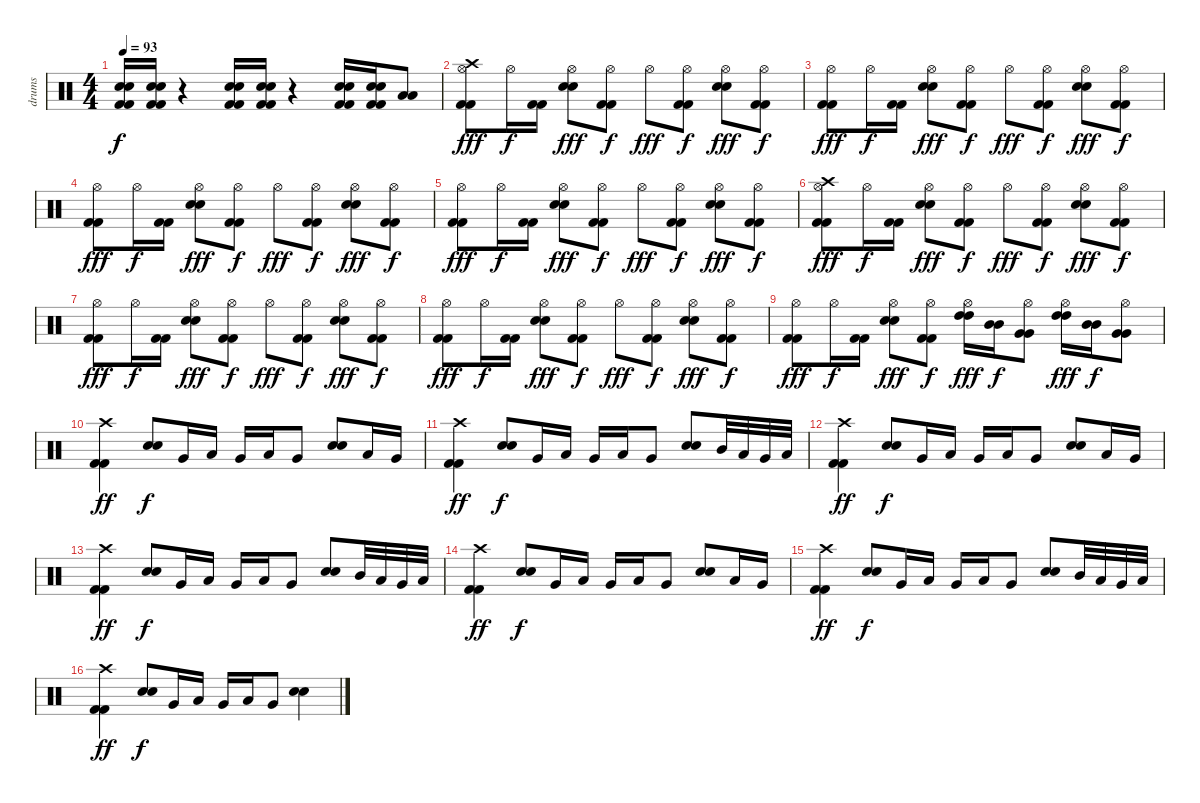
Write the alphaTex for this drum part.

\track ("drums" "drums") {instrument percussion}
\staff {score}
\articulation defaults
\ts (4 4)
\tempo 93
\clef neutral
\ks c
("Electric Snare (hit)" "Electric Snare (hit)" "Kick (hit) 2" "Kick (hit) 2").16{dy f} ("Electric Snare (hit)" "Electric Snare (hit)" "Kick (hit) 2" "Kick (hit) 2").16 r.4 ("Electric Snare (hit)" "Electric Snare (hit)" "Kick (hit) 2" "Kick (hit) 2").16 ("Electric Snare (hit)" "Electric Snare (hit)" "Kick (hit) 2" "Kick (hit) 2").16 r.4 ("Electric Snare (hit)" "Electric Snare (hit)" "Kick (hit) 2" "Kick (hit) 2").16 ("Electric Snare (hit)" "Electric Snare (hit)" "Kick (hit) 2" "Kick (hit) 2").16 ("Low Floor Tom (hit)" "Low Floor Tom (hit)").8 |
("Crash high (hit)" "Hi-Hat (open)" "Kick (hit) 2" "Kick (hit) 2").8{dy fff} "Hi-Hat (open)".16{dy f} ("Kick (hit) 2" "Kick (hit) 2").16 ("Electric Snare (hit)" "Electric Snare (hit)" "Hi-Hat (open)").8{dy fff} ("Hi-Hat (open)" "Kick (hit) 2" "Kick (hit) 2").8{dy f} "Hi-Hat (open)".8{dy fff} ("Hi-Hat (open)" "Kick (hit) 2" "Kick (hit) 2").8{dy f} ("Electric Snare (hit)" "Electric Snare (hit)" "Hi-Hat (open)").8{dy fff} ("Hi-Hat (open)" "Kick (hit) 2" "Kick (hit) 2").8{dy f} |
("Hi-Hat (open)" "Kick (hit) 2" "Kick (hit) 2").8{dy fff} "Hi-Hat (open)".16{dy f} ("Kick (hit) 2" "Kick (hit) 2").16 ("Electric Snare (hit)" "Electric Snare (hit)" "Hi-Hat (open)").8{dy fff} ("Hi-Hat (open)" "Kick (hit) 2" "Kick (hit) 2").8{dy f} "Hi-Hat (open)".8{dy fff} ("Hi-Hat (open)" "Kick (hit) 2" "Kick (hit) 2").8{dy f} ("Electric Snare (hit)" "Electric Snare (hit)" "Hi-Hat (open)").8{dy fff} ("Hi-Hat (open)" "Kick (hit) 2" "Kick (hit) 2").8{dy f} |
("Hi-Hat (open)" "Kick (hit) 2" "Kick (hit) 2").8{dy fff} "Hi-Hat (open)".16{dy f} ("Kick (hit) 2" "Kick (hit) 2").16 ("Electric Snare (hit)" "Electric Snare (hit)" "Hi-Hat (open)").8{dy fff} ("Hi-Hat (open)" "Kick (hit) 2" "Kick (hit) 2").8{dy f} "Hi-Hat (open)".8{dy fff} ("Hi-Hat (open)" "Kick (hit) 2" "Kick (hit) 2").8{dy f} ("Electric Snare (hit)" "Electric Snare (hit)" "Hi-Hat (open)").8{dy fff} ("Hi-Hat (open)" "Kick (hit) 2" "Kick (hit) 2").8{dy f} |
("Hi-Hat (open)" "Kick (hit) 2" "Kick (hit) 2").8{dy fff} "Hi-Hat (open)".16{dy f} ("Kick (hit) 2" "Kick (hit) 2").16 ("Electric Snare (hit)" "Electric Snare (hit)" "Hi-Hat (open)").8{dy fff} ("Hi-Hat (open)" "Kick (hit) 2" "Kick (hit) 2").8{dy f} "Hi-Hat (open)".8{dy fff} ("Hi-Hat (open)" "Kick (hit) 2" "Kick (hit) 2").8{dy f} ("Electric Snare (hit)" "Electric Snare (hit)" "Hi-Hat (open)").8{dy fff} ("Hi-Hat (open)" "Kick (hit) 2" "Kick (hit) 2").8{dy f} |
("Crash high (hit)" "Hi-Hat (open)" "Kick (hit) 2" "Kick (hit) 2").8{dy fff} "Hi-Hat (open)".16{dy f} ("Kick (hit) 2" "Kick (hit) 2").16 ("Electric Snare (hit)" "Electric Snare (hit)" "Hi-Hat (open)").8{dy fff} ("Hi-Hat (open)" "Kick (hit) 2" "Kick (hit) 2").8{dy f} "Hi-Hat (open)".8{dy fff} ("Hi-Hat (open)" "Kick (hit) 2" "Kick (hit) 2").8{dy f} ("Electric Snare (hit)" "Electric Snare (hit)" "Hi-Hat (open)").8{dy fff} ("Hi-Hat (open)" "Kick (hit) 2" "Kick (hit) 2").8{dy f} |
("Hi-Hat (open)" "Kick (hit) 2" "Kick (hit) 2").8{dy fff} "Hi-Hat (open)".16{dy f} ("Kick (hit) 2" "Kick (hit) 2").16 ("Electric Snare (hit)" "Electric Snare (hit)" "Hi-Hat (open)").8{dy fff} ("Hi-Hat (open)" "Kick (hit) 2" "Kick (hit) 2").8{dy f} "Hi-Hat (open)".8{dy fff} ("Hi-Hat (open)" "Kick (hit) 2" "Kick (hit) 2").8{dy f} ("Electric Snare (hit)" "Electric Snare (hit)" "Hi-Hat (open)").8{dy fff} ("Hi-Hat (open)" "Kick (hit) 2" "Kick (hit) 2").8{dy f} |
("Hi-Hat (open)" "Kick (hit) 2" "Kick (hit) 2").8{dy fff} "Hi-Hat (open)".16{dy f} ("Kick (hit) 2" "Kick (hit) 2").16 ("Electric Snare (hit)" "Electric Snare (hit)" "Hi-Hat (open)").8{dy fff} ("Hi-Hat (open)" "Kick (hit) 2" "Kick (hit) 2").8{dy f} "Hi-Hat (open)".8{dy fff} ("Hi-Hat (open)" "Kick (hit) 2" "Kick (hit) 2").8{dy f} ("Electric Snare (hit)" "Electric Snare (hit)" "Hi-Hat (open)").8{dy fff} ("Hi-Hat (open)" "Kick (hit) 2" "Kick (hit) 2").8{dy f} |
("Hi-Hat (open)" "Kick (hit) 2" "Kick (hit) 2").8{dy fff} "Hi-Hat (open)".16{dy f} ("Kick (hit) 2" "Kick (hit) 2").16 ("Electric Snare (hit)" "Electric Snare (hit)" "Hi-Hat (open)").8{dy fff} ("Hi-Hat (open)" "Kick (hit) 2" "Kick (hit) 2").8{dy f} ("Hi-Hat (open)" "High Tom (hit)" "High Tom (hit)").16{dy fff} ("Mid Tom (hit)" "Mid Tom (hit)").16{dy f} ("Hi-Hat (open)" "Very Low Tom (hit)" "Very Low Tom (hit)").8 ("Hi-Hat (open)" "High Tom (hit)" "High Tom (hit)").16{dy fff} ("Mid Tom (hit)" "Mid Tom (hit)").16{dy f} ("Hi-Hat (open)" "Very Low Tom (hit)" "Very Low Tom (hit)").8 |
("Crash high (hit)" "Kick (hit) 2" "Kick (hit) 2").4{dy ff} ("Electric Snare (hit)" "Electric Snare (hit)").8{dy f} "Very Low Tom (hit)".16 "Low Tom (hit)".16 "Very Low Tom (hit)".16 "Low Tom (hit)".16 "Very Low Tom (hit)".8 ("Electric Snare (hit)" "Electric Snare (hit)").8 "Low Tom (hit)".16 "Very Low Tom (hit)".16 |
("Crash high (hit)" "Kick (hit) 2" "Kick (hit) 2").4{dy ff} ("Electric Snare (hit)" "Electric Snare (hit)").8{dy f} "Very Low Tom (hit)".16 "Low Tom (hit)".16 "Very Low Tom (hit)".16 "Low Tom (hit)".16 "Very Low Tom (hit)".8 ("Electric Snare (hit)" "Electric Snare (hit)").8 "Mid Tom (hit)".32 "Low Tom (hit)".32 "Very Low Tom (hit)".32 "Low Floor Tom (hit)".32 |
("Crash high (hit)" "Kick (hit) 2" "Kick (hit) 2").4{dy ff} ("Electric Snare (hit)" "Electric Snare (hit)").8{dy f} "Very Low Tom (hit)".16 "Low Tom (hit)".16 "Very Low Tom (hit)".16 "Low Tom (hit)".16 "Very Low Tom (hit)".8 ("Electric Snare (hit)" "Electric Snare (hit)").8 "Low Tom (hit)".16 "Very Low Tom (hit)".16 |
("Crash high (hit)" "Kick (hit) 2" "Kick (hit) 2").4{dy ff} ("Electric Snare (hit)" "Electric Snare (hit)").8{dy f} "Very Low Tom (hit)".16 "Low Tom (hit)".16 "Very Low Tom (hit)".16 "Low Tom (hit)".16 "Very Low Tom (hit)".8 ("Electric Snare (hit)" "Electric Snare (hit)").8 "Mid Tom (hit)".32 "Low Tom (hit)".32 "Very Low Tom (hit)".32 "Low Floor Tom (hit)".32 |
("Crash high (hit)" "Kick (hit) 2" "Kick (hit) 2").4{dy ff} ("Electric Snare (hit)" "Electric Snare (hit)").8{dy f} "Very Low Tom (hit)".16 "Low Tom (hit)".16 "Very Low Tom (hit)".16 "Low Tom (hit)".16 "Very Low Tom (hit)".8 ("Electric Snare (hit)" "Electric Snare (hit)").8 "Low Tom (hit)".16 "Very Low Tom (hit)".16 |
("Crash high (hit)" "Kick (hit) 2" "Kick (hit) 2").4{dy ff} ("Electric Snare (hit)" "Electric Snare (hit)").8{dy f} "Very Low Tom (hit)".16 "Low Tom (hit)".16 "Very Low Tom (hit)".16 "Low Tom (hit)".16 "Very Low Tom (hit)".8 ("Electric Snare (hit)" "Electric Snare (hit)").8 "Mid Tom (hit)".32 "Low Tom (hit)".32 "Very Low Tom (hit)".32 "Low Floor Tom (hit)".32 |
("Crash high (hit)" "Kick (hit) 2" "Kick (hit) 2").4{dy ff} ("Electric Snare (hit)" "Electric Snare (hit)").8{dy f} "Very Low Tom (hit)".16 "Low Tom (hit)".16 "Very Low Tom (hit)".16 "Low Tom (hit)".16 "Very Low Tom (hit)".8 ("Electric Snare (hit)" "Electric Snare (hit)").4
